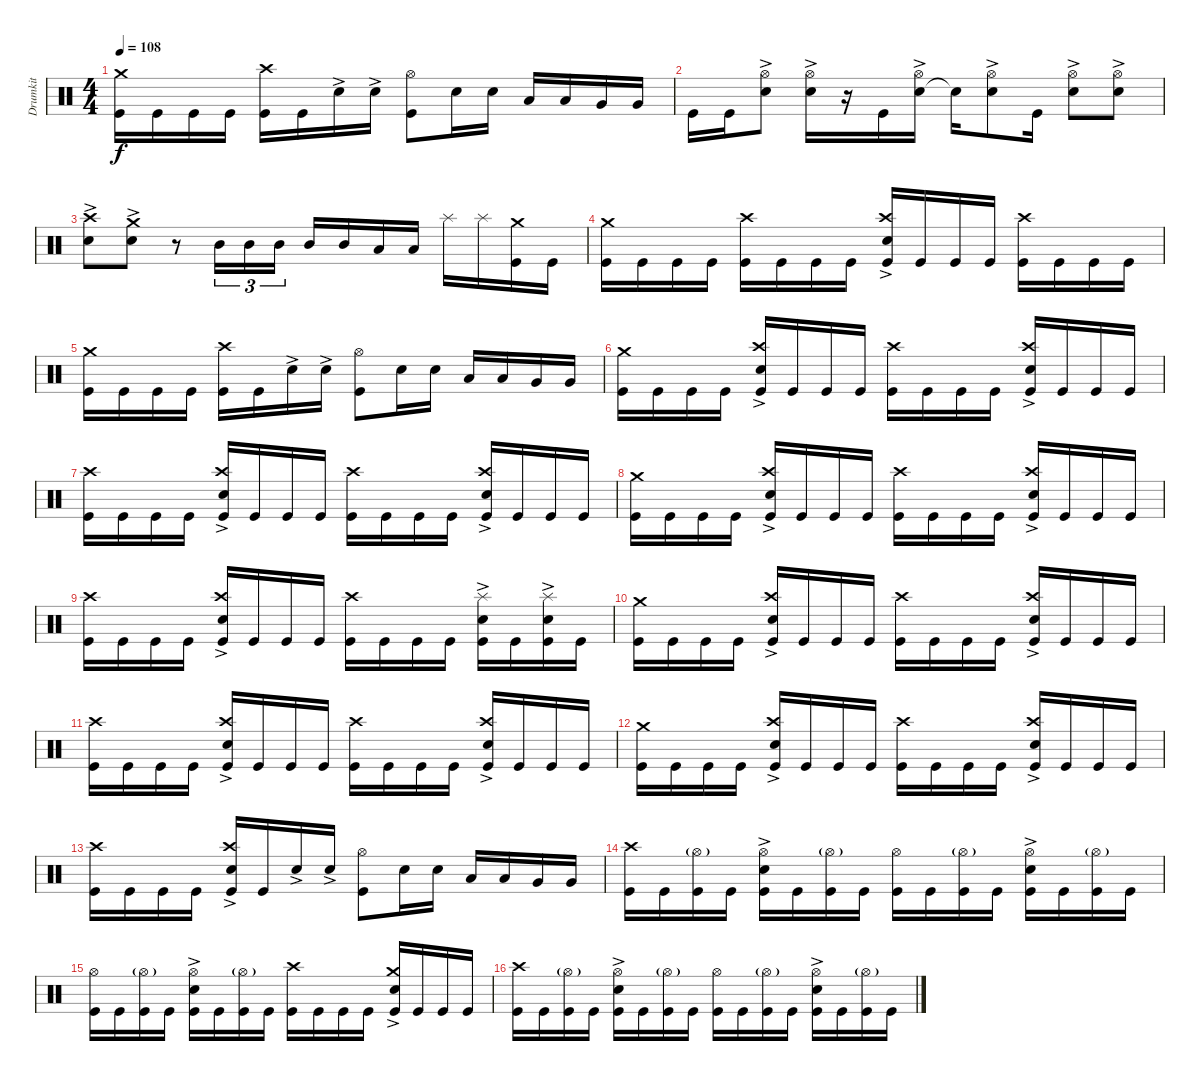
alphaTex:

\track ("Drumkit" "Drumkit") {instrument percussion}
\staff {score}
\articulation defaults
\ts (4 4)
\tempo 108
\clef neutral
\ks c
("Kick (hit)" "Crash medium (hit)").16{dy f} "Kick (hit)".16 "Kick (hit)".16 "Kick (hit)".16 ("Kick (hit)" "Crash high (hit)").16 "Kick (hit)".16 "Snare (hit) 2"{ac}.16 "Snare (hit) 2"{ac}.16 ("Kick (hit)" "Hi-Hat (open)").8 "Snare (hit) 2".16 "Snare (hit) 2".16 "Low Tom (hit)".16 "Low Tom (hit)".16 "Very Low Tom (hit)".16 "Very Low Tom (hit)".16 |
"Kick (hit)".16 "Kick (hit)".16 ("Snare (hit) 2"{ac} "Hi-Hat (open)").8 ("Snare (hit) 2"{ac} "Hi-Hat (open)").16 r.16 "Kick (hit)".16 ("Snare (hit) 2"{ac} "Hi-Hat (open)").16 "Snare (hit) 2"{t}.16 ("Snare (hit) 2"{ac} "Hi-Hat (open)").8 "Kick (hit)".16 ("Snare (hit) 2"{ac} "Hi-Hat (open)").8 ("Snare (hit) 2"{ac} "Hi-Hat (open)").8 |
("Snare (hit) 2"{ac} "Crash high (hit)").8 ("Snare (hit) 2"{ac} "Crash medium (hit)").8 r.8 "Mid Tom (hit)".16{tu (3 2)} "Mid Tom (hit)".16{tu (3 2)} "Mid Tom (hit)".16{tu (3 2)} "Mid Tom (hit)".16 "Mid Tom (hit)".16 "Low Tom (hit)".16 "Low Tom (hit)".16 "Splash (hit)".16 "Splash (hit)".16 ("Kick (hit)" "Crash medium (hit)").16 "Kick (hit)".16 |
("Kick (hit)" "Crash medium (hit)").16 "Kick (hit)".16 "Kick (hit)".16 "Kick (hit)".16 ("Kick (hit)" "Crash high (hit)").16 "Kick (hit)".16 "Kick (hit)".16 "Kick (hit)".16 ("Kick (hit)" "Crash high (hit)" "Snare (hit) 2"{ac}).16 "Kick (hit)".16 "Kick (hit)".16 "Kick (hit)".16 ("Kick (hit)" "Crash high (hit)").16 "Kick (hit)".16 "Kick (hit)".16 "Kick (hit)".16 |
("Kick (hit)" "Crash medium (hit)").16 "Kick (hit)".16 "Kick (hit)".16 "Kick (hit)".16 ("Kick (hit)" "Crash high (hit)").16 "Kick (hit)".16 "Snare (hit) 2"{ac}.16 "Snare (hit) 2"{ac}.16 ("Kick (hit)" "Hi-Hat (open)").8 "Snare (hit) 2".16 "Snare (hit) 2".16 "Low Tom (hit)".16 "Low Tom (hit)".16 "Very Low Tom (hit)".16 "Very Low Tom (hit)".16 |
("Kick (hit)" "Crash medium (hit)").16 "Kick (hit)".16 "Kick (hit)".16 "Kick (hit)".16 ("Kick (hit)" "Crash high (hit)" "Snare (hit) 2"{ac}).16 "Kick (hit)".16 "Kick (hit)".16 "Kick (hit)".16 ("Kick (hit)" "Crash high (hit)").16 "Kick (hit)".16 "Kick (hit)".16 "Kick (hit)".16 ("Kick (hit)" "Crash high (hit)" "Snare (hit) 2"{ac}).16 "Kick (hit)".16 "Kick (hit)".16 "Kick (hit)".16 |
("Kick (hit)" "Crash high (hit)").16 "Kick (hit)".16 "Kick (hit)".16 "Kick (hit)".16 ("Kick (hit)" "Crash high (hit)" "Snare (hit) 2"{ac}).16 "Kick (hit)".16 "Kick (hit)".16 "Kick (hit)".16 ("Kick (hit)" "Crash high (hit)").16 "Kick (hit)".16 "Kick (hit)".16 "Kick (hit)".16 ("Kick (hit)" "Crash high (hit)" "Snare (hit) 2"{ac}).16 "Kick (hit)".16 "Kick (hit)".16 "Kick (hit)".16 |
("Kick (hit)" "Crash medium (hit)").16 "Kick (hit)".16 "Kick (hit)".16 "Kick (hit)".16 ("Kick (hit)" "Crash high (hit)" "Snare (hit) 2"{ac}).16 "Kick (hit)".16 "Kick (hit)".16 "Kick (hit)".16 ("Kick (hit)" "Crash high (hit)").16 "Kick (hit)".16 "Kick (hit)".16 "Kick (hit)".16 ("Kick (hit)" "Crash high (hit)" "Snare (hit) 2"{ac}).16 "Kick (hit)".16 "Kick (hit)".16 "Kick (hit)".16 |
("Kick (hit)" "Crash high (hit)").16 "Kick (hit)".16 "Kick (hit)".16 "Kick (hit)".16 ("Kick (hit)" "Crash high (hit)" "Snare (hit) 2"{ac}).16 "Kick (hit)".16 "Kick (hit)".16 "Kick (hit)".16 ("Kick (hit)" "Crash high (hit)").16 "Kick (hit)".16 "Kick (hit)".16 "Kick (hit)".16 ("Kick (hit)" "Snare (hit) 2"{ac} "Splash (hit)").16 "Kick (hit)".16 ("Kick (hit)" "Snare (hit) 2"{ac} "Splash (hit)").16 "Kick (hit)".16 |
("Kick (hit)" "Crash medium (hit)").16 "Kick (hit)".16 "Kick (hit)".16 "Kick (hit)".16 ("Kick (hit)" "Crash high (hit)" "Snare (hit) 2"{ac}).16 "Kick (hit)".16 "Kick (hit)".16 "Kick (hit)".16 ("Kick (hit)" "Crash high (hit)").16 "Kick (hit)".16 "Kick (hit)".16 "Kick (hit)".16 ("Kick (hit)" "Crash high (hit)" "Snare (hit) 2"{ac}).16 "Kick (hit)".16 "Kick (hit)".16 "Kick (hit)".16 |
("Kick (hit)" "Crash high (hit)").16 "Kick (hit)".16 "Kick (hit)".16 "Kick (hit)".16 ("Kick (hit)" "Crash high (hit)" "Snare (hit) 2"{ac}).16 "Kick (hit)".16 "Kick (hit)".16 "Kick (hit)".16 ("Kick (hit)" "Crash high (hit)").16 "Kick (hit)".16 "Kick (hit)".16 "Kick (hit)".16 ("Kick (hit)" "Crash high (hit)" "Snare (hit) 2"{ac}).16 "Kick (hit)".16 "Kick (hit)".16 "Kick (hit)".16 |
("Kick (hit)" "Crash medium (hit)").16 "Kick (hit)".16 "Kick (hit)".16 "Kick (hit)".16 ("Kick (hit)" "Crash high (hit)" "Snare (hit) 2"{ac}).16 "Kick (hit)".16 "Kick (hit)".16 "Kick (hit)".16 ("Kick (hit)" "Crash high (hit)").16 "Kick (hit)".16 "Kick (hit)".16 "Kick (hit)".16 ("Kick (hit)" "Crash high (hit)" "Snare (hit) 2"{ac}).16 "Kick (hit)".16 "Kick (hit)".16 "Kick (hit)".16 |
("Kick (hit)" "Crash high (hit)").16 "Kick (hit)".16 "Kick (hit)".16 "Kick (hit)".16 ("Kick (hit)" "Crash high (hit)" "Snare (hit) 2"{ac}).16 "Kick (hit)".16 "Snare (hit) 2"{ac}.16 "Snare (hit) 2"{ac}.16 ("Kick (hit)" "Hi-Hat (open)").8 "Snare (hit) 2".16 "Snare (hit) 2".16 "Low Tom (hit)".16 "Low Tom (hit)".16 "Very Low Tom (hit)".16 "Very Low Tom (hit)".16 |
("Kick (hit)" "Crash high (hit)").16 "Kick (hit)".16 ("Kick (hit)" "Hi-Hat (open)"{g}).16 "Kick (hit)".16 ("Kick (hit)" "Snare (hit) 2"{ac} "Hi-Hat (open)").16 "Kick (hit)".16 ("Kick (hit)" "Hi-Hat (open)"{g}).16 "Kick (hit)".16 ("Kick (hit)" "Hi-Hat (open)").16 "Kick (hit)".16 ("Kick (hit)" "Hi-Hat (open)"{g}).16 "Kick (hit)".16 ("Kick (hit)" "Snare (hit) 2"{ac} "Hi-Hat (open)").16 "Kick (hit)".16 ("Kick (hit)" "Hi-Hat (open)"{g}).16 "Kick (hit)".16 |
("Kick (hit)" "Hi-Hat (open)").16 "Kick (hit)".16 ("Kick (hit)" "Hi-Hat (open)"{g}).16 "Kick (hit)".16 ("Kick (hit)" "Snare (hit) 2"{ac} "Hi-Hat (open)").16 "Kick (hit)".16 ("Kick (hit)" "Hi-Hat (open)"{g}).16 "Kick (hit)".16 ("Kick (hit)" "Crash high (hit)").16 "Kick (hit)".16 "Kick (hit)".16 "Kick (hit)".16 ("Kick (hit)" "Snare (hit) 2"{ac} "Crash medium (hit)").16 "Kick (hit)".16 "Kick (hit)".16 "Kick (hit)".16 |
("Kick (hit)" "Crash high (hit)").16 "Kick (hit)".16 ("Kick (hit)" "Hi-Hat (open)"{g}).16 "Kick (hit)".16 ("Kick (hit)" "Snare (hit) 2"{ac} "Hi-Hat (open)").16 "Kick (hit)".16 ("Kick (hit)" "Hi-Hat (open)"{g}).16 "Kick (hit)".16 ("Kick (hit)" "Hi-Hat (open)").16 "Kick (hit)".16 ("Kick (hit)" "Hi-Hat (open)"{g}).16 "Kick (hit)".16 ("Kick (hit)" "Snare (hit) 2"{ac} "Hi-Hat (open)").16 "Kick (hit)".16 ("Kick (hit)" "Hi-Hat (open)"{g}).16 "Kick (hit)".16
